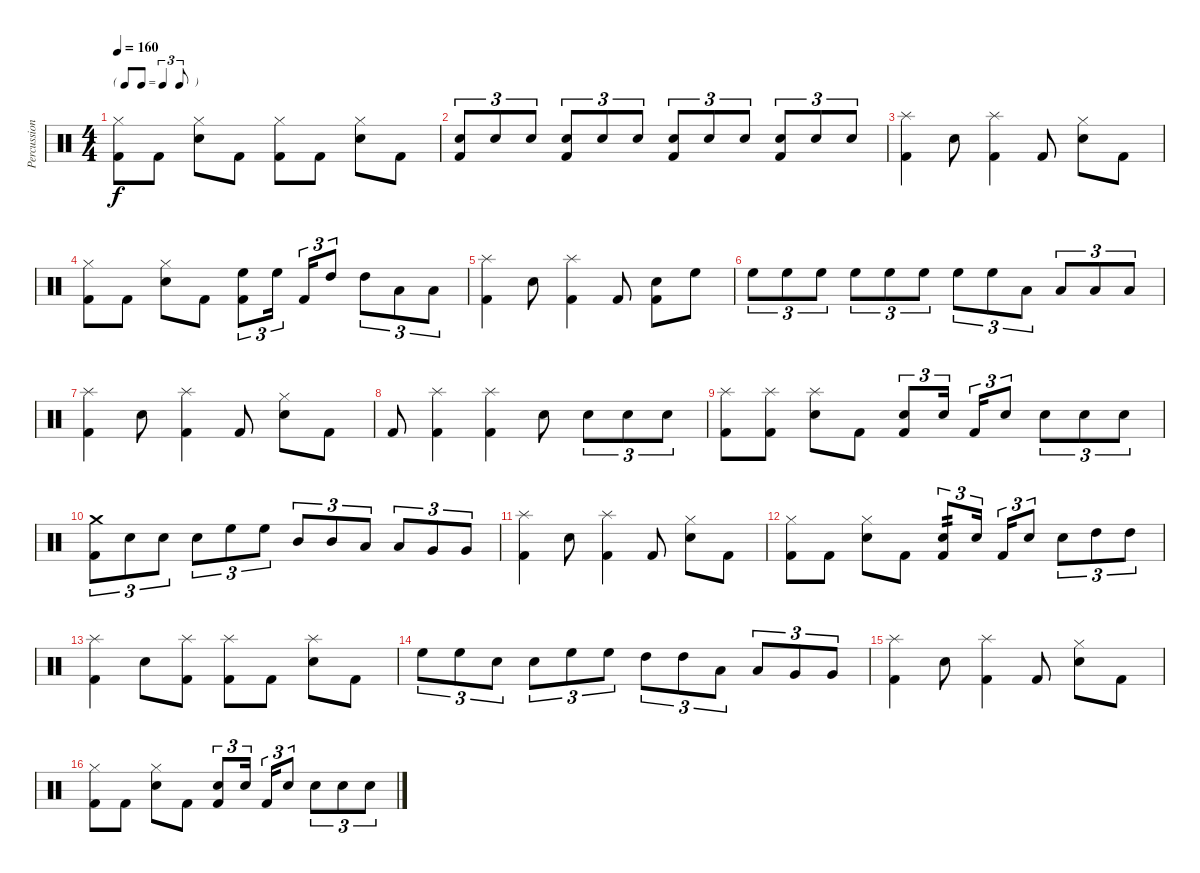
\track ("Percussion" "Percussion") {instrument percussion}
\staff {score}
\articulation defaults
\ts (4 4)
\tf triplet8th
\tempo 160
\clef neutral
\ks c
("Kick (hit) 2" "Hi-Hat (closed)").8{dy f} "Kick (hit) 2".8 ("Snare (hit) 2" "Hi-Hat (closed)").8 "Kick (hit) 2".8 ("Kick (hit) 2" "Hi-Hat (closed)").8 "Kick (hit) 2".8 ("Snare (hit) 2" "Hi-Hat (closed)").8 "Kick (hit) 2".8 |
("Snare (hit) 2" "Kick (hit) 2").8{tu (3 2)} "Snare (hit) 2".8{tu (3 2)} "Snare (hit) 2".8{tu (3 2)} ("Snare (hit) 2" "Kick (hit) 2").8{tu (3 2)} "Snare (hit) 2".8{tu (3 2)} "Snare (hit) 2".8{tu (3 2)} ("Snare (hit) 2" "Kick (hit) 2").8{tu (3 2)} "Snare (hit) 2".8{tu (3 2)} "Snare (hit) 2".8{tu (3 2)} ("Snare (hit) 2" "Kick (hit) 2").8{tu (3 2)} "Snare (hit) 2".8{tu (3 2)} "Snare (hit) 2".8{tu (3 2)} |
("Kick (hit) 2" "Splash (hit)").4 "Snare (hit) 2".8 ("Kick (hit) 2" "Splash (hit)").4 "Kick (hit) 2".8 ("Snare (hit) 2" "Hi-Hat (closed)").8 "Kick (hit) 2".8 |
("Kick (hit) 2" "Hi-Hat (closed)").8 "Kick (hit) 2".8 ("Snare (hit) 2" "Hi-Hat (closed)").8 "Kick (hit) 2".8 ("Kick (hit) 2" "High Floor Tom (hit)").8{tu (3 2)} "High Floor Tom (hit)".16{tu (3 2)} "Kick (hit) 2".16{tu (3 2)} "High Tom (hit)".8{tu (3 2)} "High Tom (hit)".8{tu (3 2)} "Low Tom (hit)".8{tu (3 2)} "Low Tom (hit)".8{tu (3 2)} |
("Kick (hit) 2" "Splash (hit)").4 "Snare (hit) 2".8 ("Kick (hit) 2" "Splash (hit)").4 "Kick (hit) 2".8 ("Kick (hit) 2" "Snare (hit) 2").8 "High Floor Tom (hit)".8 |
"High Floor Tom (hit)".8{tu (3 2)} "High Floor Tom (hit)".8{tu (3 2)} "High Floor Tom (hit)".8{tu (3 2)} "High Floor Tom (hit)".8{tu (3 2)} "High Floor Tom (hit)".8{tu (3 2)} "High Floor Tom (hit)".8{tu (3 2)} "High Floor Tom (hit)".8{tu (3 2)} "High Floor Tom (hit)".8{tu (3 2)} "Low Tom (hit)".8{tu (3 2)} "Low Tom (hit)".8{tu (3 2)} "Low Tom (hit)".8{tu (3 2)} "Low Tom (hit)".8{tu (3 2)} |
("Kick (hit) 2" "Splash (hit)").4 "Snare (hit) 2".8 ("Kick (hit) 2" "Splash (hit)").4 "Kick (hit) 2".8 ("Snare (hit) 2" "Hi-Hat (closed)").8 "Kick (hit) 2".8 |
"Kick (hit) 2".8 ("Kick (hit) 2" "Splash (hit)").4 ("Kick (hit) 2" "Splash (hit)").4 "Snare (hit) 2".8 "Snare (hit) 2".8{tu (3 2)} "Snare (hit) 2".8{tu (3 2)} "Snare (hit) 2".8{tu (3 2)} |
("Kick (hit) 2" "Splash (hit)").8 ("Kick (hit) 2" "Splash (hit)").8 ("Snare (hit) 2" "Splash (hit)").8 "Kick (hit) 2".8 ("Snare (hit) 2" "Kick (hit) 2").8{tu (3 2)} "Snare (hit) 2".16{tu (3 2)} "Kick (hit) 2".16{tu (3 2)} "Snare (hit) 2".8{tu (3 2)} "Snare (hit) 2".8{tu (3 2)} "Snare (hit) 2".8{tu (3 2)} "Snare (hit) 2".8{tu (3 2)} |
("Kick (hit) 2" "Crash medium (hit)").8{tu (3 2)} "Snare (hit) 2".8{tu (3 2)} "Snare (hit) 2".8{tu (3 2)} "Snare (hit) 2".8{tu (3 2)} "High Floor Tom (hit)".8{tu (3 2)} "High Floor Tom (hit)".8{tu (3 2)} "Mid Tom (hit)".8{tu (3 2)} "Mid Tom (hit)".8{tu (3 2)} "Low Tom (hit)".8{tu (3 2)} "Low Tom (hit)".8{tu (3 2)} "Very Low Tom (hit)".8{tu (3 2)} "Very Low Tom (hit)".8{tu (3 2)} |
("Kick (hit) 2" "Splash (hit)").4 "Snare (hit) 2".8 ("Kick (hit) 2" "Splash (hit)").4 "Kick (hit) 2".8 ("Snare (hit) 2" "Hi-Hat (closed)").8 "Kick (hit) 2".8 |
("Kick (hit) 2" "Hi-Hat (closed)").8 "Kick (hit) 2".8 ("Snare (hit) 2" "Hi-Hat (closed)").8 "Kick (hit) 2".8 ("Snare (hit) 2" "Kick (hit) 2").8{tu (3 2) tp 2} "Snare (hit) 2".16{tu (3 2)} "Kick (hit) 2".16{tu (3 2)} "Snare (hit) 2".8{tu (3 2)} "Snare (hit) 2".8{tu (3 2)} "High Tom (hit)".8{tu (3 2)} "High Tom (hit)".8{tu (3 2)} |
("Kick (hit) 2" "Splash (hit)").4 "Snare (hit) 2".8 ("Kick (hit) 2" "Splash (hit)").8 ("Kick (hit) 2" "Splash (hit)").8 "Kick (hit) 2".8 ("Snare (hit) 2" "Splash (hit)").8 "Kick (hit) 2".8 |
"High Floor Tom (hit)".8{tu (3 2)} "High Floor Tom (hit)".8{tu (3 2)} "Snare (hit) 2".8{tu (3 2)} "Snare (hit) 2".8{tu (3 2)} "High Floor Tom (hit)".8{tu (3 2)} "High Floor Tom (hit)".8{tu (3 2)} "High Tom (hit)".8{tu (3 2)} "High Tom (hit)".8{tu (3 2)} "Low Tom (hit)".8{tu (3 2)} "Low Tom (hit)".8{tu (3 2)} "Very Low Tom (hit)".8{tu (3 2)} "Very Low Tom (hit)".8{tu (3 2)} |
("Kick (hit) 2" "Splash (hit)").4 "Snare (hit) 2".8 ("Kick (hit) 2" "Splash (hit)").4 "Kick (hit) 2".8 ("Snare (hit) 2" "Hi-Hat (closed)").8 "Kick (hit) 2".8 |
("Kick (hit) 2" "Hi-Hat (closed)").8 "Kick (hit) 2".8 ("Snare (hit) 2" "Hi-Hat (closed)").8 "Kick (hit) 2".8 ("Snare (hit) 2" "Kick (hit) 2").8{tu (3 2)} "Snare (hit) 2".16{tu (3 2)} "Kick (hit) 2".16{tu (3 2)} "Snare (hit) 2".8{tu (3 2)} "Snare (hit) 2".8{tu (3 2)} "Snare (hit) 2".8{tu (3 2)} "Snare (hit) 2".8{tu (3 2)}
